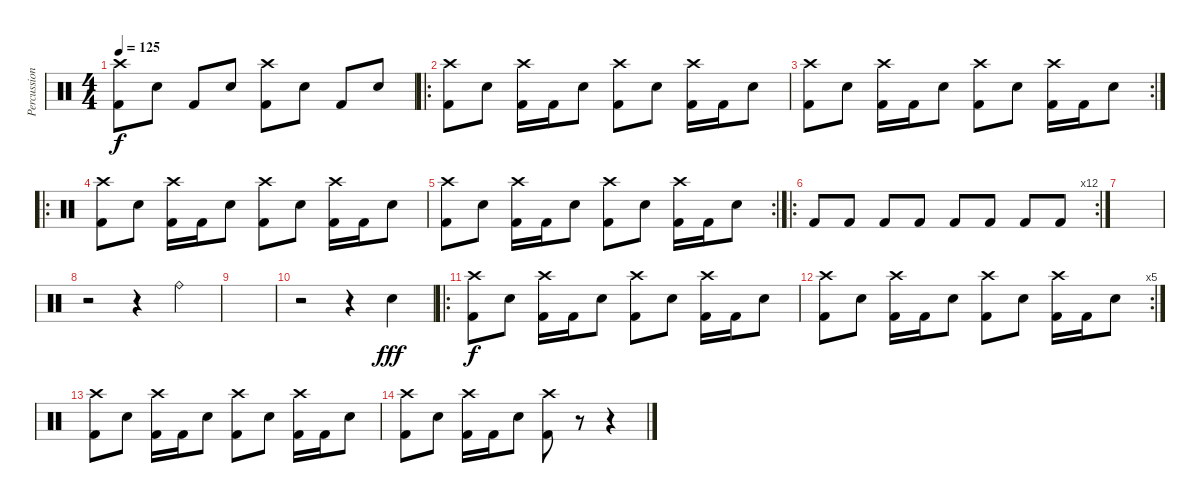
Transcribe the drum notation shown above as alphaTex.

\track ("Percussion" "Percussion") {instrument percussion}
\staff {score}
\articulation defaults
\ts (4 4)
\tempo 125
\clef neutral
\ks c
("Crash high (hit)" "Kick (hit) 2").8{dy f} "Electric Snare (hit)".8 "Kick (hit) 2".8 "Electric Snare (hit)".8 ("Crash high (hit)" "Kick (hit) 2").8 "Electric Snare (hit)".8 "Kick (hit) 2".8 "Electric Snare (hit)".8 |
\ro
("Crash high (hit)" "Kick (hit) 2").8 "Electric Snare (hit)".8 ("Crash high (hit)" "Kick (hit) 2").16 "Kick (hit) 2".16 "Electric Snare (hit)".8 ("Crash high (hit)" "Kick (hit) 2").8 "Electric Snare (hit)".8 ("Crash high (hit)" "Kick (hit) 2").16 "Kick (hit) 2".16 "Electric Snare (hit)".8 |
\rc 2
("Crash high (hit)" "Kick (hit) 2").8 "Electric Snare (hit)".8 ("Crash high (hit)" "Kick (hit) 2").16 "Kick (hit) 2".16 "Electric Snare (hit)".8 ("Crash high (hit)" "Kick (hit) 2").8 "Electric Snare (hit)".8 ("Crash high (hit)" "Kick (hit) 2").16 "Kick (hit) 2".16 "Electric Snare (hit)".8 |
\ro
("Crash high (hit)" "Kick (hit) 2").8 "Electric Snare (hit)".8 ("Crash high (hit)" "Kick (hit) 2").16 "Kick (hit) 2".16 "Electric Snare (hit)".8 ("Crash high (hit)" "Kick (hit) 2").8 "Electric Snare (hit)".8 ("Crash high (hit)" "Kick (hit) 2").16 "Kick (hit) 2".16 "Electric Snare (hit)".8 |
\rc 2
("Crash high (hit)" "Kick (hit) 2").8 "Electric Snare (hit)".8 ("Crash high (hit)" "Kick (hit) 2").16 "Kick (hit) 2".16 "Electric Snare (hit)".8 ("Crash high (hit)" "Kick (hit) 2").8 "Electric Snare (hit)".8 ("Crash high (hit)" "Kick (hit) 2").16 "Kick (hit) 2".16 "Electric Snare (hit)".8 |
\ro
\rc 12 "Kick (hit) 2".8 "Kick (hit) 2".8 "Kick (hit) 2".8 "Kick (hit) 2".8 "Kick (hit) 2".8 "Kick (hit) 2".8 "Kick (hit) 2".8 "Kick (hit) 2".8
|
|
r.2 r.4 "Ride (bell)".4 |
|
r.2 r.4 "Electric Snare (hit)".4{dy fff} |
\ro
("Crash high (hit)" "Kick (hit) 2").8{dy f} "Electric Snare (hit)".8 ("Crash high (hit)" "Kick (hit) 2").16 "Kick (hit) 2".16 "Electric Snare (hit)".8 ("Crash high (hit)" "Kick (hit) 2").8 "Electric Snare (hit)".8 ("Crash high (hit)" "Kick (hit) 2").16 "Kick (hit) 2".16 "Electric Snare (hit)".8 |
\rc 5
("Crash high (hit)" "Kick (hit) 2").8 "Electric Snare (hit)".8 ("Crash high (hit)" "Kick (hit) 2").16 "Kick (hit) 2".16 "Electric Snare (hit)".8 ("Crash high (hit)" "Kick (hit) 2").8 "Electric Snare (hit)".8 ("Crash high (hit)" "Kick (hit) 2").16 "Kick (hit) 2".16 "Electric Snare (hit)".8 |
("Crash high (hit)" "Kick (hit) 2").8 "Electric Snare (hit)".8 ("Crash high (hit)" "Kick (hit) 2").16 "Kick (hit) 2".16 "Electric Snare (hit)".8 ("Crash high (hit)" "Kick (hit) 2").8 "Electric Snare (hit)".8 ("Crash high (hit)" "Kick (hit) 2").16 "Kick (hit) 2".16 "Electric Snare (hit)".8 |
("Crash high (hit)" "Kick (hit) 2").8 "Electric Snare (hit)".8 ("Crash high (hit)" "Kick (hit) 2").16 "Kick (hit) 2".16 "Electric Snare (hit)".8 ("Crash high (hit)" "Kick (hit) 2").8 r.8 r.4
